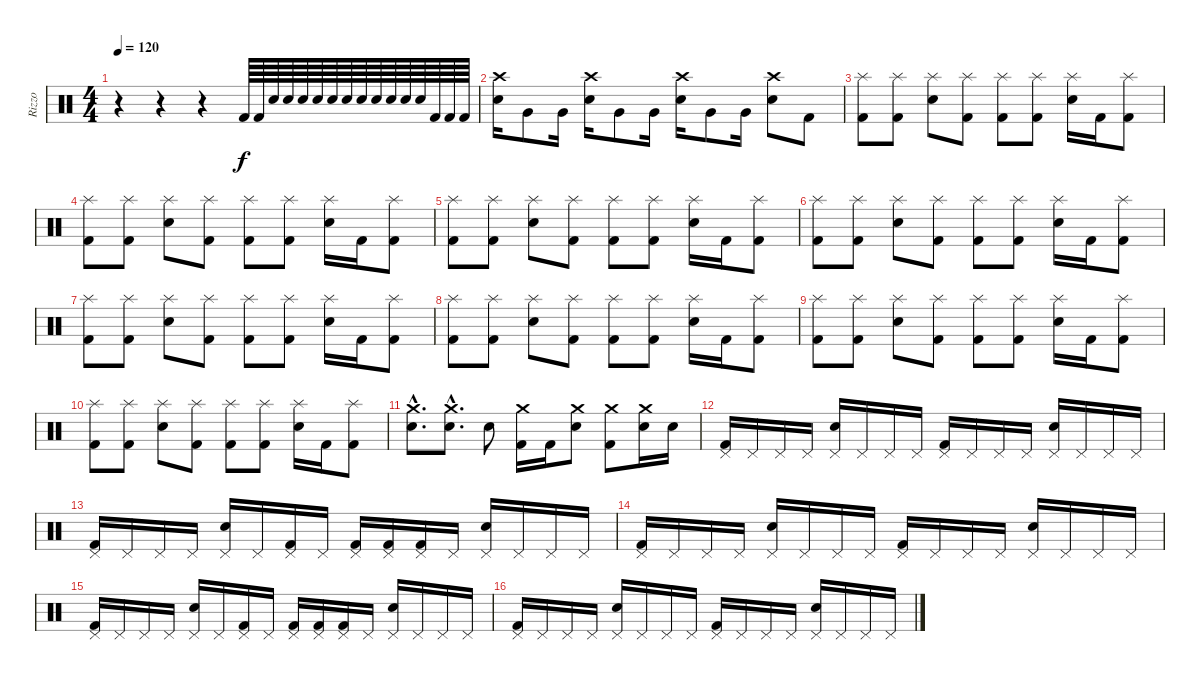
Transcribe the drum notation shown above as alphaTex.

\track ("Rizzo" "Rizzo") {instrument percussion}
\staff {score}
\articulation defaults
\ts (4 4)
\tempo 120
\clef neutral
\ks c
r.4{dy f} r.4 r.4 "Kick (hit) 2"{x}.64 "Kick (hit) 2"{x}.64 "Snare (hit)"{x}.64 "Snare (hit)"{x}.64 "Snare (hit)"{x}.64 "Snare (hit)"{x}.64 "Snare (hit)"{x}.64 "Snare (hit)"{x}.64 "Snare (hit)"{x}.64 "Snare (hit)"{x}.64 "Snare (hit)"{x}.64 "Snare (hit)"{x}.64 "Snare (hit)"{x}.64 "Kick (hit) 2"{x}.64 "Kick (hit) 2".64 "Kick (hit) 2".64 |
("Snare (hit) 2" "Crash high (hit)").16 "Very Low Tom (hit)".8 "Very Low Tom (hit)".16 ("Snare (hit) 2" "Crash high (hit)").16 "Very Low Tom (hit)".8 "Very Low Tom (hit)".16 ("Snare (hit) 2" "Crash high (hit)").16 "Very Low Tom (hit)".8 "Very Low Tom (hit)".16 ("Snare (hit) 2" "Crash high (hit)").8 "Kick (hit) 2".8 |
("Kick (hit) 2" "Splash (hit)").8 ("Kick (hit) 2" "Splash (hit)").8 ("Electric Snare (hit)" "Splash (hit)").8 ("Kick (hit) 2" "Splash (hit)").8 ("Kick (hit) 2" "Splash (hit)").8 ("Kick (hit) 2" "Splash (hit)").8 ("Electric Snare (hit)" "Splash (hit)").16 "Kick (hit) 2".16 ("Kick (hit) 2" "Splash (hit)").8 |
("Kick (hit) 2" "Splash (hit)").8 ("Kick (hit) 2" "Splash (hit)").8 ("Electric Snare (hit)" "Splash (hit)").8 ("Kick (hit) 2" "Splash (hit)").8 ("Kick (hit) 2" "Splash (hit)").8 ("Kick (hit) 2" "Splash (hit)").8 ("Electric Snare (hit)" "Splash (hit)").16 "Kick (hit) 2".16 ("Kick (hit) 2" "Splash (hit)").8 |
("Kick (hit) 2" "Splash (hit)").8 ("Kick (hit) 2" "Splash (hit)").8 ("Electric Snare (hit)" "Splash (hit)").8 ("Kick (hit) 2" "Splash (hit)").8 ("Kick (hit) 2" "Splash (hit)").8 ("Kick (hit) 2" "Splash (hit)").8 ("Electric Snare (hit)" "Splash (hit)").16 "Kick (hit) 2".16 ("Kick (hit) 2" "Splash (hit)").8 |
("Kick (hit) 2" "Splash (hit)").8 ("Kick (hit) 2" "Splash (hit)").8 ("Electric Snare (hit)" "Splash (hit)").8 ("Kick (hit) 2" "Splash (hit)").8 ("Kick (hit) 2" "Splash (hit)").8 ("Kick (hit) 2" "Splash (hit)").8 ("Electric Snare (hit)" "Splash (hit)").16 "Kick (hit) 2".16 ("Kick (hit) 2" "Splash (hit)").8 |
("Kick (hit) 2" "Splash (hit)").8 ("Kick (hit) 2" "Splash (hit)").8 ("Electric Snare (hit)" "Splash (hit)").8 ("Kick (hit) 2" "Splash (hit)").8 ("Kick (hit) 2" "Splash (hit)").8 ("Kick (hit) 2" "Splash (hit)").8 ("Electric Snare (hit)" "Splash (hit)").16 "Kick (hit) 2".16 ("Kick (hit) 2" "Splash (hit)").8 |
("Kick (hit) 2" "Splash (hit)").8 ("Kick (hit) 2" "Splash (hit)").8 ("Electric Snare (hit)" "Splash (hit)").8 ("Kick (hit) 2" "Splash (hit)").8 ("Kick (hit) 2" "Splash (hit)").8 ("Kick (hit) 2" "Splash (hit)").8 ("Electric Snare (hit)" "Splash (hit)").16 "Kick (hit) 2".16 ("Kick (hit) 2" "Splash (hit)").8 |
("Kick (hit) 2" "Splash (hit)").8 ("Kick (hit) 2" "Splash (hit)").8 ("Electric Snare (hit)" "Splash (hit)").8 ("Kick (hit) 2" "Splash (hit)").8 ("Kick (hit) 2" "Splash (hit)").8 ("Kick (hit) 2" "Splash (hit)").8 ("Electric Snare (hit)" "Splash (hit)").16 "Kick (hit) 2".16 ("Kick (hit) 2" "Splash (hit)").8 |
("Kick (hit) 2" "Splash (hit)").8 ("Kick (hit) 2" "Splash (hit)").8 ("Electric Snare (hit)" "Splash (hit)").8 ("Kick (hit) 2" "Splash (hit)").8 ("Kick (hit) 2" "Splash (hit)").8 ("Kick (hit) 2" "Splash (hit)").8 ("Electric Snare (hit)" "Splash (hit)").16 "Kick (hit) 2".16 ("Kick (hit) 2" "Splash (hit)").8 |
("Electric Snare (hit)"{hac} "Crash medium (hit)"{hac}).8{d} ("Electric Snare (hit)"{hac} "Crash medium (hit)"{hac}).8{d} "Electric Snare (hit)".8 ("Kick (hit) 2" "Crash medium (hit)").16 "Kick (hit) 2".16 ("Electric Snare (hit)" "Crash medium (hit)").8 ("Kick (hit) 2" "Crash medium (hit)").8 ("Electric Snare (hit)" "Crash medium (hit)").16 "Electric Snare (hit)".16 |
("Kick (hit) 2" "Pedal Hi-Hat (hit)").16 "Pedal Hi-Hat (hit)".16 "Pedal Hi-Hat (hit)".16 "Pedal Hi-Hat (hit)".16 ("Electric Snare (hit)" "Pedal Hi-Hat (hit)").16 "Pedal Hi-Hat (hit)".16 "Pedal Hi-Hat (hit)".16 "Pedal Hi-Hat (hit)".16 ("Kick (hit) 2" "Pedal Hi-Hat (hit)").16 "Pedal Hi-Hat (hit)".16 "Pedal Hi-Hat (hit)".16 "Pedal Hi-Hat (hit)".16 ("Electric Snare (hit)" "Pedal Hi-Hat (hit)").16 "Pedal Hi-Hat (hit)".16 "Pedal Hi-Hat (hit)".16 "Pedal Hi-Hat (hit)".16 |
("Kick (hit) 2" "Pedal Hi-Hat (hit)").16 "Pedal Hi-Hat (hit)".16 "Pedal Hi-Hat (hit)".16 "Pedal Hi-Hat (hit)".16 ("Electric Snare (hit)" "Pedal Hi-Hat (hit)").16 "Pedal Hi-Hat (hit)".16 ("Kick (hit) 2" "Pedal Hi-Hat (hit)").16 "Pedal Hi-Hat (hit)".16 ("Kick (hit) 2" "Pedal Hi-Hat (hit)").16 ("Kick (hit) 2" "Pedal Hi-Hat (hit)").16 ("Kick (hit) 2" "Pedal Hi-Hat (hit)").16 "Pedal Hi-Hat (hit)".16 ("Electric Snare (hit)" "Pedal Hi-Hat (hit)").16 "Pedal Hi-Hat (hit)".16 "Pedal Hi-Hat (hit)".16 "Pedal Hi-Hat (hit)".16 |
("Kick (hit) 2" "Pedal Hi-Hat (hit)").16 "Pedal Hi-Hat (hit)".16 "Pedal Hi-Hat (hit)".16 "Pedal Hi-Hat (hit)".16 ("Electric Snare (hit)" "Pedal Hi-Hat (hit)").16 "Pedal Hi-Hat (hit)".16 "Pedal Hi-Hat (hit)".16 "Pedal Hi-Hat (hit)".16 ("Kick (hit) 2" "Pedal Hi-Hat (hit)").16 "Pedal Hi-Hat (hit)".16 "Pedal Hi-Hat (hit)".16 "Pedal Hi-Hat (hit)".16 ("Electric Snare (hit)" "Pedal Hi-Hat (hit)").16 "Pedal Hi-Hat (hit)".16 "Pedal Hi-Hat (hit)".16 "Pedal Hi-Hat (hit)".16 |
("Kick (hit) 2" "Pedal Hi-Hat (hit)").16 "Pedal Hi-Hat (hit)".16 "Pedal Hi-Hat (hit)".16 "Pedal Hi-Hat (hit)".16 ("Electric Snare (hit)" "Pedal Hi-Hat (hit)").16 "Pedal Hi-Hat (hit)".16 ("Kick (hit) 2" "Pedal Hi-Hat (hit)").16 "Pedal Hi-Hat (hit)".16 ("Kick (hit) 2" "Pedal Hi-Hat (hit)").16 ("Kick (hit) 2" "Pedal Hi-Hat (hit)").16 ("Kick (hit) 2" "Pedal Hi-Hat (hit)").16 "Pedal Hi-Hat (hit)".16 ("Electric Snare (hit)" "Pedal Hi-Hat (hit)").16 "Pedal Hi-Hat (hit)".16 "Pedal Hi-Hat (hit)".16 "Pedal Hi-Hat (hit)".16 |
("Kick (hit) 2" "Pedal Hi-Hat (hit)").16 "Pedal Hi-Hat (hit)".16 "Pedal Hi-Hat (hit)".16 "Pedal Hi-Hat (hit)".16 ("Electric Snare (hit)" "Pedal Hi-Hat (hit)").16 "Pedal Hi-Hat (hit)".16 "Pedal Hi-Hat (hit)".16 "Pedal Hi-Hat (hit)".16 ("Kick (hit) 2" "Pedal Hi-Hat (hit)").16 "Pedal Hi-Hat (hit)".16 "Pedal Hi-Hat (hit)".16 "Pedal Hi-Hat (hit)".16 ("Electric Snare (hit)" "Pedal Hi-Hat (hit)").16 "Pedal Hi-Hat (hit)".16 "Pedal Hi-Hat (hit)".16 "Pedal Hi-Hat (hit)".16
